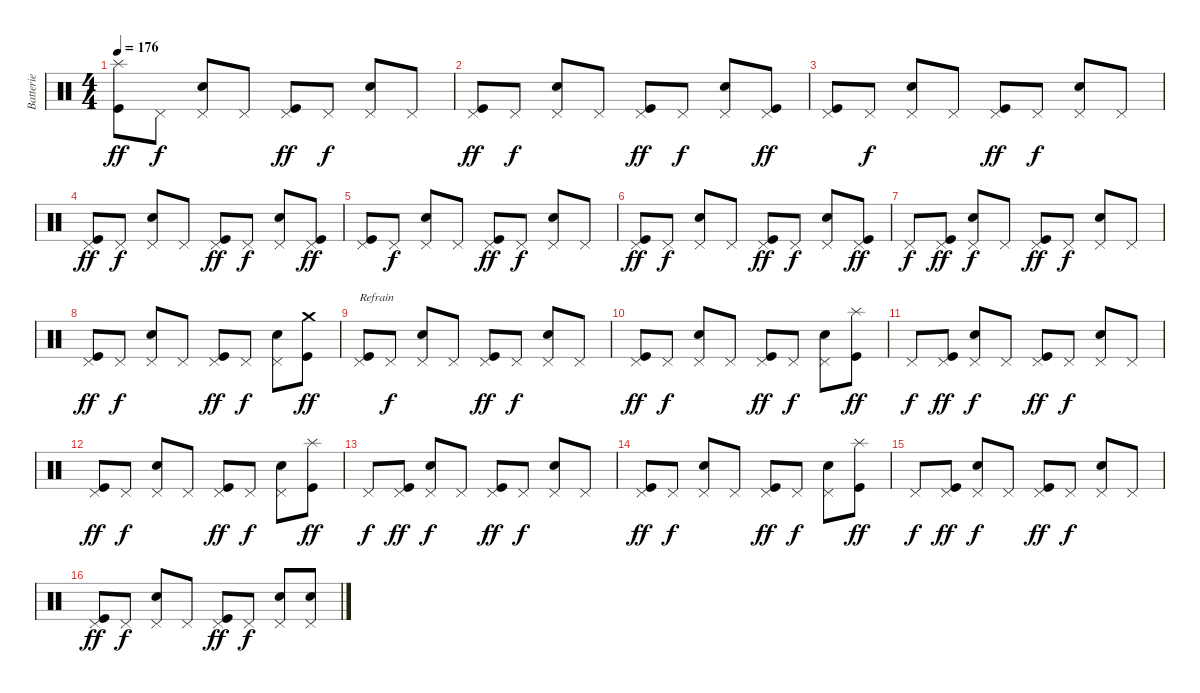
\track ("Batterie" "Batterie") {instrument percussion}
\staff {score}
\articulation defaults
\ts (4 4)
\tempo 176
\clef neutral
\ks c
("Splash (hit)" "Kick (hit)").8{dy ff} "Pedal Hi-Hat (hit)".8{dy f} ("Pedal Hi-Hat (hit)" "Snare (hit) 2").8 "Pedal Hi-Hat (hit)".8 ("Pedal Hi-Hat (hit)" "Kick (hit)").8{dy ff} "Pedal Hi-Hat (hit)".8{dy f} ("Pedal Hi-Hat (hit)" "Snare (hit) 2").8 "Pedal Hi-Hat (hit)".8 |
("Pedal Hi-Hat (hit)" "Kick (hit)").8{dy ff} "Pedal Hi-Hat (hit)".8{dy f} ("Pedal Hi-Hat (hit)" "Snare (hit) 2").8 "Pedal Hi-Hat (hit)".8 ("Pedal Hi-Hat (hit)" "Kick (hit)").8{dy ff} "Pedal Hi-Hat (hit)".8{dy f} ("Pedal Hi-Hat (hit)" "Snare (hit) 2").8 ("Pedal Hi-Hat (hit)" "Kick (hit)").8{dy ff} |
("Pedal Hi-Hat (hit)" "Kick (hit)").8 "Pedal Hi-Hat (hit)".8{dy f} ("Pedal Hi-Hat (hit)" "Snare (hit) 2").8 "Pedal Hi-Hat (hit)".8 ("Pedal Hi-Hat (hit)" "Kick (hit)").8{dy ff} "Pedal Hi-Hat (hit)".8{dy f} ("Pedal Hi-Hat (hit)" "Snare (hit) 2").8 "Pedal Hi-Hat (hit)".8 |
("Pedal Hi-Hat (hit)" "Kick (hit)").8{dy ff} "Pedal Hi-Hat (hit)".8{dy f} ("Pedal Hi-Hat (hit)" "Snare (hit) 2").8 "Pedal Hi-Hat (hit)".8 ("Pedal Hi-Hat (hit)" "Kick (hit)").8{dy ff} "Pedal Hi-Hat (hit)".8{dy f} ("Pedal Hi-Hat (hit)" "Snare (hit) 2").8 ("Pedal Hi-Hat (hit)" "Kick (hit)").8{dy ff} |
("Pedal Hi-Hat (hit)" "Kick (hit)").8 "Pedal Hi-Hat (hit)".8{dy f} ("Pedal Hi-Hat (hit)" "Snare (hit) 2").8 "Pedal Hi-Hat (hit)".8 ("Pedal Hi-Hat (hit)" "Kick (hit)").8{dy ff} "Pedal Hi-Hat (hit)".8{dy f} ("Pedal Hi-Hat (hit)" "Snare (hit) 2").8 "Pedal Hi-Hat (hit)".8 |
("Pedal Hi-Hat (hit)" "Kick (hit)").8{dy ff} "Pedal Hi-Hat (hit)".8{dy f} ("Pedal Hi-Hat (hit)" "Snare (hit) 2").8 "Pedal Hi-Hat (hit)".8 ("Pedal Hi-Hat (hit)" "Kick (hit)").8{dy ff} "Pedal Hi-Hat (hit)".8{dy f} ("Pedal Hi-Hat (hit)" "Snare (hit) 2").8 ("Pedal Hi-Hat (hit)" "Kick (hit)").8{dy ff} |
"Pedal Hi-Hat (hit)".8{dy f} ("Pedal Hi-Hat (hit)" "Kick (hit)").8{dy ff} ("Pedal Hi-Hat (hit)" "Snare (hit) 2").8{dy f} "Pedal Hi-Hat (hit)".8 ("Pedal Hi-Hat (hit)" "Kick (hit)").8{dy ff} "Pedal Hi-Hat (hit)".8{dy f} ("Pedal Hi-Hat (hit)" "Snare (hit) 2").8 "Pedal Hi-Hat (hit)".8 |
("Pedal Hi-Hat (hit)" "Kick (hit)").8{dy ff} "Pedal Hi-Hat (hit)".8{dy f} ("Pedal Hi-Hat (hit)" "Snare (hit) 2").8 "Pedal Hi-Hat (hit)".8 ("Pedal Hi-Hat (hit)" "Kick (hit)").8{dy ff} "Pedal Hi-Hat (hit)".8{dy f} ("Pedal Hi-Hat (hit)" "Snare (hit) 2").8 ("Crash medium (hit)" "Kick (hit)").8{dy ff} |
("Pedal Hi-Hat (hit)" "Kick (hit)").8{txt "Refrain"} "Pedal Hi-Hat (hit)".8{dy f} ("Pedal Hi-Hat (hit)" "Snare (hit) 2").8 "Pedal Hi-Hat (hit)".8 ("Pedal Hi-Hat (hit)" "Kick (hit)").8{dy ff} "Pedal Hi-Hat (hit)".8{dy f} ("Pedal Hi-Hat (hit)" "Snare (hit) 2").8 "Pedal Hi-Hat (hit)".8 |
("Pedal Hi-Hat (hit)" "Kick (hit)").8{dy ff} "Pedal Hi-Hat (hit)".8{dy f} ("Pedal Hi-Hat (hit)" "Snare (hit) 2").8 "Pedal Hi-Hat (hit)".8 ("Pedal Hi-Hat (hit)" "Kick (hit)").8{dy ff} "Pedal Hi-Hat (hit)".8{dy f} ("Pedal Hi-Hat (hit)" "Snare (hit) 2").8 ("Splash (hit)" "Kick (hit)").8{dy ff} |
"Pedal Hi-Hat (hit)".8{dy f} ("Pedal Hi-Hat (hit)" "Kick (hit)").8{dy ff} ("Pedal Hi-Hat (hit)" "Snare (hit) 2").8{dy f} "Pedal Hi-Hat (hit)".8 ("Pedal Hi-Hat (hit)" "Kick (hit)").8{dy ff} "Pedal Hi-Hat (hit)".8{dy f} ("Pedal Hi-Hat (hit)" "Snare (hit) 2").8 "Pedal Hi-Hat (hit)".8 |
("Pedal Hi-Hat (hit)" "Kick (hit)").8{dy ff} "Pedal Hi-Hat (hit)".8{dy f} ("Pedal Hi-Hat (hit)" "Snare (hit) 2").8 "Pedal Hi-Hat (hit)".8 ("Pedal Hi-Hat (hit)" "Kick (hit)").8{dy ff} "Pedal Hi-Hat (hit)".8{dy f} ("Pedal Hi-Hat (hit)" "Snare (hit) 2").8 ("Splash (hit)" "Kick (hit)").8{dy ff} |
"Pedal Hi-Hat (hit)".8{dy f} ("Pedal Hi-Hat (hit)" "Kick (hit)").8{dy ff} ("Pedal Hi-Hat (hit)" "Snare (hit) 2").8{dy f} "Pedal Hi-Hat (hit)".8 ("Pedal Hi-Hat (hit)" "Kick (hit)").8{dy ff} "Pedal Hi-Hat (hit)".8{dy f} ("Pedal Hi-Hat (hit)" "Snare (hit) 2").8 "Pedal Hi-Hat (hit)".8 |
("Pedal Hi-Hat (hit)" "Kick (hit)").8{dy ff} "Pedal Hi-Hat (hit)".8{dy f} ("Pedal Hi-Hat (hit)" "Snare (hit) 2").8 "Pedal Hi-Hat (hit)".8 ("Pedal Hi-Hat (hit)" "Kick (hit)").8{dy ff} "Pedal Hi-Hat (hit)".8{dy f} ("Pedal Hi-Hat (hit)" "Snare (hit) 2").8 ("Splash (hit)" "Kick (hit)").8{dy ff} |
"Pedal Hi-Hat (hit)".8{dy f} ("Pedal Hi-Hat (hit)" "Kick (hit)").8{dy ff} ("Pedal Hi-Hat (hit)" "Snare (hit) 2").8{dy f} "Pedal Hi-Hat (hit)".8 ("Pedal Hi-Hat (hit)" "Kick (hit)").8{dy ff} "Pedal Hi-Hat (hit)".8{dy f} ("Pedal Hi-Hat (hit)" "Snare (hit) 2").8 "Pedal Hi-Hat (hit)".8 |
("Pedal Hi-Hat (hit)" "Kick (hit)").8{dy ff} "Pedal Hi-Hat (hit)".8{dy f} ("Pedal Hi-Hat (hit)" "Snare (hit) 2").8 "Pedal Hi-Hat (hit)".8 ("Pedal Hi-Hat (hit)" "Kick (hit)").8{dy ff} "Pedal Hi-Hat (hit)".8{dy f} ("Pedal Hi-Hat (hit)" "Snare (hit) 2").8 ("Pedal Hi-Hat (hit)" "Snare (hit) 2").8
